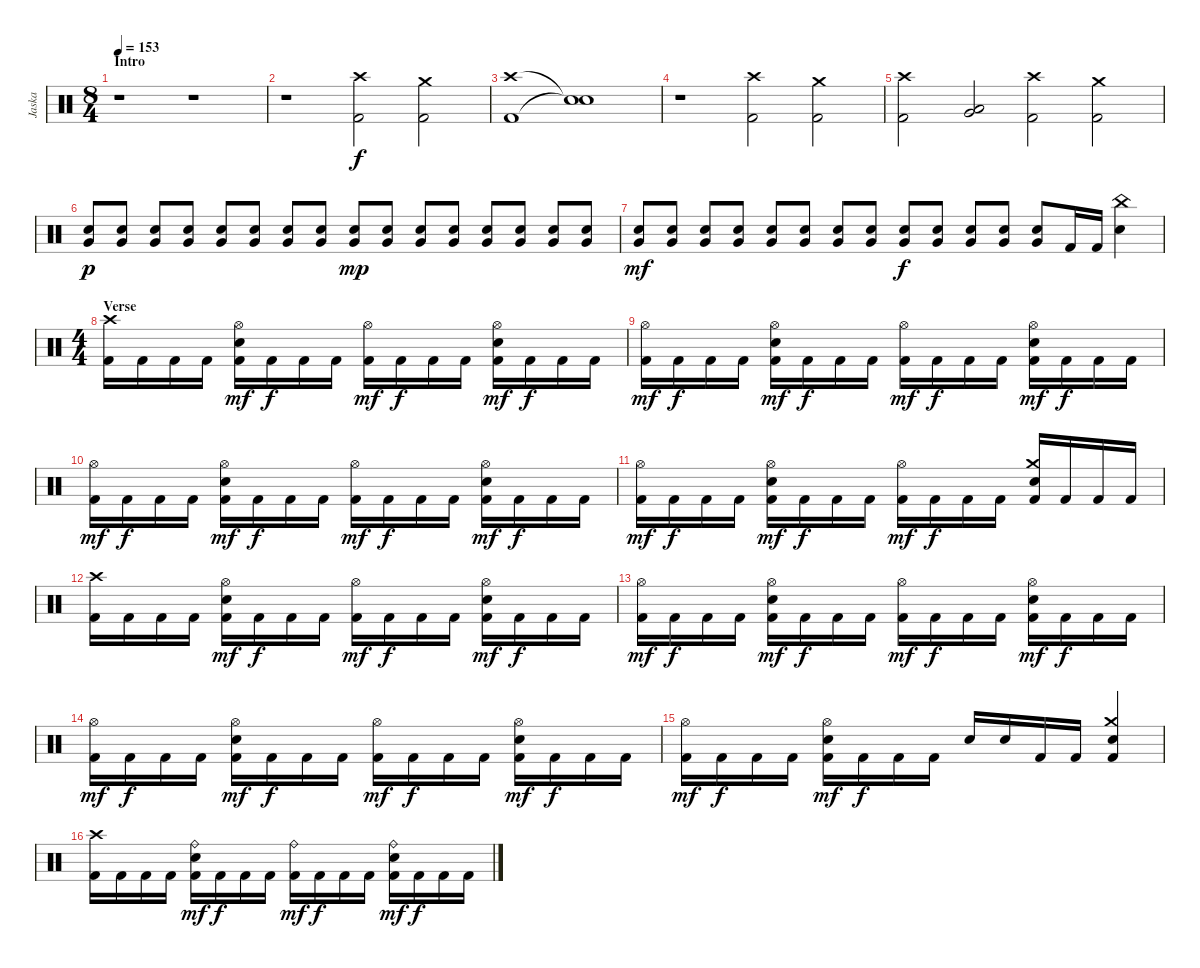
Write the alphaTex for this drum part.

\track ("Jaska" "Jaska") {instrument percussion}
\staff {score}
\articulation defaults
\ts (8 4)
\section ("" "Intro")
\tempo 153
\clef neutral
\ks c
r.1{dy f} r.1 |
r.1 ("Crash high (hit)" "Kick (hit) 2").2 ("Crash medium (hit)" "Kick (hit) 2").2 |
("Crash high (hit)" "Kick (hit) 2").1 ("Snare (hit)"{t} "Snare (hit)"{t}).1 |
r.1 ("Crash high (hit)" "Kick (hit) 2").2 ("Crash medium (hit)" "Kick (hit) 2").2 |
("Crash high (hit)" "Kick (hit) 2").2 ("Very Low Tom (hit)" "Low Tom (hit)").2 ("Crash high (hit)" "Kick (hit) 2").2 ("Crash medium (hit)" "Kick (hit) 2").2 |
("Very Low Tom (hit)" "Electric Snare (hit)").8{dy p} ("Very Low Tom (hit)" "Electric Snare (hit)").8 ("Very Low Tom (hit)" "Electric Snare (hit)").8 ("Very Low Tom (hit)" "Electric Snare (hit)").8 ("Very Low Tom (hit)" "Electric Snare (hit)").8 ("Very Low Tom (hit)" "Electric Snare (hit)").8 ("Very Low Tom (hit)" "Electric Snare (hit)").8 ("Very Low Tom (hit)" "Electric Snare (hit)").8 ("Very Low Tom (hit)" "Electric Snare (hit)").8{dy mp} ("Very Low Tom (hit)" "Electric Snare (hit)").8 ("Very Low Tom (hit)" "Electric Snare (hit)").8 ("Very Low Tom (hit)" "Electric Snare (hit)").8 ("Very Low Tom (hit)" "Electric Snare (hit)").8 ("Very Low Tom (hit)" "Electric Snare (hit)").8 ("Very Low Tom (hit)" "Electric Snare (hit)").8 ("Very Low Tom (hit)" "Electric Snare (hit)").8 |
("Very Low Tom (hit)" "Electric Snare (hit)").8{dy mf} ("Very Low Tom (hit)" "Electric Snare (hit)").8 ("Very Low Tom (hit)" "Electric Snare (hit)").8 ("Very Low Tom (hit)" "Electric Snare (hit)").8 ("Very Low Tom (hit)" "Electric Snare (hit)").8 ("Very Low Tom (hit)" "Electric Snare (hit)").8 ("Very Low Tom (hit)" "Electric Snare (hit)").8 ("Very Low Tom (hit)" "Electric Snare (hit)").8 ("Very Low Tom (hit)" "Electric Snare (hit)").8{dy f} ("Very Low Tom (hit)" "Electric Snare (hit)").8 ("Very Low Tom (hit)" "Electric Snare (hit)").8 ("Very Low Tom (hit)" "Electric Snare (hit)").8 ("Very Low Tom (hit)" "Electric Snare (hit)").8 "Kick (hit) 2".16 "Kick (hit) 2".16 ("China (hit)" "Electric Snare (hit)").4 |
\ts (4 4)
\section ("" "Verse")
("Crash high (hit)" "Kick (hit) 2").16 "Kick (hit) 2".16 "Kick (hit) 2".16 "Kick (hit) 2".16 ("Hi-Hat (open)" "Electric Snare (hit)" "Kick (hit) 2").16{dy mf} "Kick (hit) 2".16{dy f} "Kick (hit) 2".16 "Kick (hit) 2".16 ("Hi-Hat (open)" "Kick (hit) 2").16{dy mf} "Kick (hit) 2".16{dy f} "Kick (hit) 2".16 "Kick (hit) 2".16 ("Hi-Hat (open)" "Electric Snare (hit)" "Kick (hit) 2").16{dy mf} "Kick (hit) 2".16{dy f} "Kick (hit) 2".16 "Kick (hit) 2".16 |
("Hi-Hat (open)" "Kick (hit) 2").16{dy mf} "Kick (hit) 2".16{dy f} "Kick (hit) 2".16 "Kick (hit) 2".16 ("Hi-Hat (open)" "Electric Snare (hit)" "Kick (hit) 2").16{dy mf} "Kick (hit) 2".16{dy f} "Kick (hit) 2".16 "Kick (hit) 2".16 ("Hi-Hat (open)" "Kick (hit) 2").16{dy mf} "Kick (hit) 2".16{dy f} "Kick (hit) 2".16 "Kick (hit) 2".16 ("Hi-Hat (open)" "Electric Snare (hit)" "Kick (hit) 2").16{dy mf} "Kick (hit) 2".16{dy f} "Kick (hit) 2".16 "Kick (hit) 2".16 |
("Hi-Hat (open)" "Kick (hit) 2").16{dy mf} "Kick (hit) 2".16{dy f} "Kick (hit) 2".16 "Kick (hit) 2".16 ("Hi-Hat (open)" "Electric Snare (hit)" "Kick (hit) 2").16{dy mf} "Kick (hit) 2".16{dy f} "Kick (hit) 2".16 "Kick (hit) 2".16 ("Hi-Hat (open)" "Kick (hit) 2").16{dy mf} "Kick (hit) 2".16{dy f} "Kick (hit) 2".16 "Kick (hit) 2".16 ("Hi-Hat (open)" "Electric Snare (hit)" "Kick (hit) 2").16{dy mf} "Kick (hit) 2".16{dy f} "Kick (hit) 2".16 "Kick (hit) 2".16 |
("Hi-Hat (open)" "Kick (hit) 2").16{dy mf} "Kick (hit) 2".16{dy f} "Kick (hit) 2".16 "Kick (hit) 2".16 ("Hi-Hat (open)" "Electric Snare (hit)" "Kick (hit) 2").16{dy mf} "Kick (hit) 2".16{dy f} "Kick (hit) 2".16 "Kick (hit) 2".16 ("Hi-Hat (open)" "Kick (hit) 2").16{dy mf} "Kick (hit) 2".16{dy f} "Kick (hit) 2".16 "Kick (hit) 2".16 ("Crash medium (hit)" "Electric Snare (hit)" "Kick (hit) 2").16 "Kick (hit) 2".16 "Kick (hit) 2".16 "Kick (hit) 2".16 |
("Crash high (hit)" "Kick (hit) 2").16 "Kick (hit) 2".16 "Kick (hit) 2".16 "Kick (hit) 2".16 ("Hi-Hat (open)" "Electric Snare (hit)" "Kick (hit) 2").16{dy mf} "Kick (hit) 2".16{dy f} "Kick (hit) 2".16 "Kick (hit) 2".16 ("Hi-Hat (open)" "Kick (hit) 2").16{dy mf} "Kick (hit) 2".16{dy f} "Kick (hit) 2".16 "Kick (hit) 2".16 ("Hi-Hat (open)" "Electric Snare (hit)" "Kick (hit) 2").16{dy mf} "Kick (hit) 2".16{dy f} "Kick (hit) 2".16 "Kick (hit) 2".16 |
("Hi-Hat (open)" "Kick (hit) 2").16{dy mf} "Kick (hit) 2".16{dy f} "Kick (hit) 2".16 "Kick (hit) 2".16 ("Hi-Hat (open)" "Electric Snare (hit)" "Kick (hit) 2").16{dy mf} "Kick (hit) 2".16{dy f} "Kick (hit) 2".16 "Kick (hit) 2".16 ("Hi-Hat (open)" "Kick (hit) 2").16{dy mf} "Kick (hit) 2".16{dy f} "Kick (hit) 2".16 "Kick (hit) 2".16 ("Hi-Hat (open)" "Electric Snare (hit)" "Kick (hit) 2").16{dy mf} "Kick (hit) 2".16{dy f} "Kick (hit) 2".16 "Kick (hit) 2".16 |
("Hi-Hat (open)" "Kick (hit) 2").16{dy mf} "Kick (hit) 2".16{dy f} "Kick (hit) 2".16 "Kick (hit) 2".16 ("Hi-Hat (open)" "Electric Snare (hit)" "Kick (hit) 2").16{dy mf} "Kick (hit) 2".16{dy f} "Kick (hit) 2".16 "Kick (hit) 2".16 ("Hi-Hat (open)" "Kick (hit) 2").16{dy mf} "Kick (hit) 2".16{dy f} "Kick (hit) 2".16 "Kick (hit) 2".16 ("Hi-Hat (open)" "Electric Snare (hit)" "Kick (hit) 2").16{dy mf} "Kick (hit) 2".16{dy f} "Kick (hit) 2".16 "Kick (hit) 2".16 |
("Hi-Hat (open)" "Kick (hit) 2").16{dy mf} "Kick (hit) 2".16{dy f} "Kick (hit) 2".16 "Kick (hit) 2".16 ("Hi-Hat (open)" "Electric Snare (hit)" "Kick (hit) 2").16{dy mf} "Kick (hit) 2".16{dy f} "Kick (hit) 2".16 "Kick (hit) 2".16 "Electric Snare (hit)".16 "Electric Snare (hit)".16 "Kick (hit) 2".16 "Kick (hit) 2".16 ("Crash medium (hit)" "Electric Snare (hit)" "Kick (hit) 2").4 |
("Crash high (hit)" "Kick (hit) 2").16 "Kick (hit) 2".16 "Kick (hit) 2".16 "Kick (hit) 2".16 ("Ride (bell)" "Electric Snare (hit)" "Kick (hit) 2").16{dy mf} "Kick (hit) 2".16{dy f} "Kick (hit) 2".16 "Kick (hit) 2".16 ("Ride (bell)" "Kick (hit) 2").16{dy mf} "Kick (hit) 2".16{dy f} "Kick (hit) 2".16 "Kick (hit) 2".16 ("Ride (bell)" "Electric Snare (hit)" "Kick (hit) 2").16{dy mf} "Kick (hit) 2".16{dy f} "Kick (hit) 2".16 "Kick (hit) 2".16
